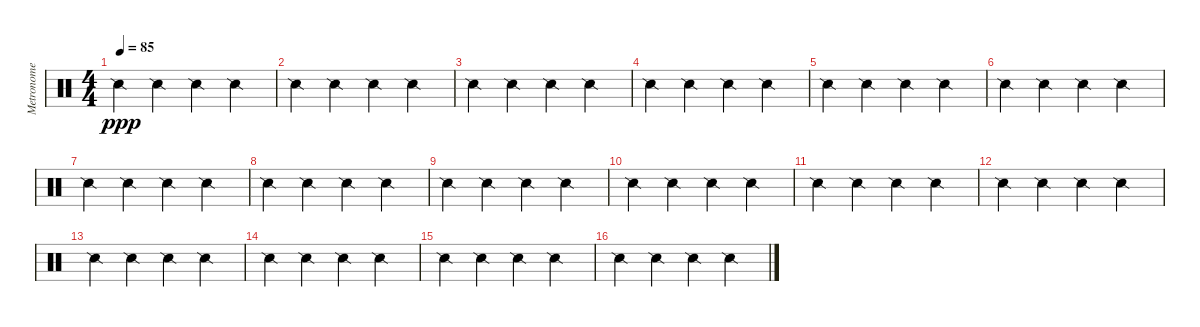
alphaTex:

\track ("Metronome" "Metronome") {instrument percussion}
\staff {score}
\articulation defaults
\ts (4 4)
\tempo 85
\clef neutral
\ks c "Snare (side stick) 2".4{dy ppp} "Snare (side stick) 2".4 "Snare (side stick) 2".4 "Snare (side stick) 2".4
|
"Snare (side stick) 2".4 "Snare (side stick) 2".4 "Snare (side stick) 2".4 "Snare (side stick) 2".4 |
"Snare (side stick) 2".4 "Snare (side stick) 2".4 "Snare (side stick) 2".4 "Snare (side stick) 2".4 |
"Snare (side stick) 2".4 "Snare (side stick) 2".4 "Snare (side stick) 2".4 "Snare (side stick) 2".4 |
"Snare (side stick) 2".4 "Snare (side stick) 2".4 "Snare (side stick) 2".4 "Snare (side stick) 2".4 |
"Snare (side stick) 2".4 "Snare (side stick) 2".4 "Snare (side stick) 2".4 "Snare (side stick) 2".4 |
"Snare (side stick) 2".4 "Snare (side stick) 2".4 "Snare (side stick) 2".4 "Snare (side stick) 2".4 |
"Snare (side stick) 2".4 "Snare (side stick) 2".4 "Snare (side stick) 2".4 "Snare (side stick) 2".4 |
"Snare (side stick) 2".4 "Snare (side stick) 2".4 "Snare (side stick) 2".4 "Snare (side stick) 2".4 |
"Snare (side stick) 2".4 "Snare (side stick) 2".4 "Snare (side stick) 2".4 "Snare (side stick) 2".4 |
"Snare (side stick) 2".4 "Snare (side stick) 2".4 "Snare (side stick) 2".4 "Snare (side stick) 2".4 |
"Snare (side stick) 2".4 "Snare (side stick) 2".4 "Snare (side stick) 2".4 "Snare (side stick) 2".4 |
"Snare (side stick) 2".4 "Snare (side stick) 2".4 "Snare (side stick) 2".4 "Snare (side stick) 2".4 |
"Snare (side stick) 2".4 "Snare (side stick) 2".4 "Snare (side stick) 2".4 "Snare (side stick) 2".4 |
"Snare (side stick) 2".4 "Snare (side stick) 2".4 "Snare (side stick) 2".4 "Snare (side stick) 2".4 |
"Snare (side stick) 2".4 "Snare (side stick) 2".4 "Snare (side stick) 2".4 "Snare (side stick) 2".4
